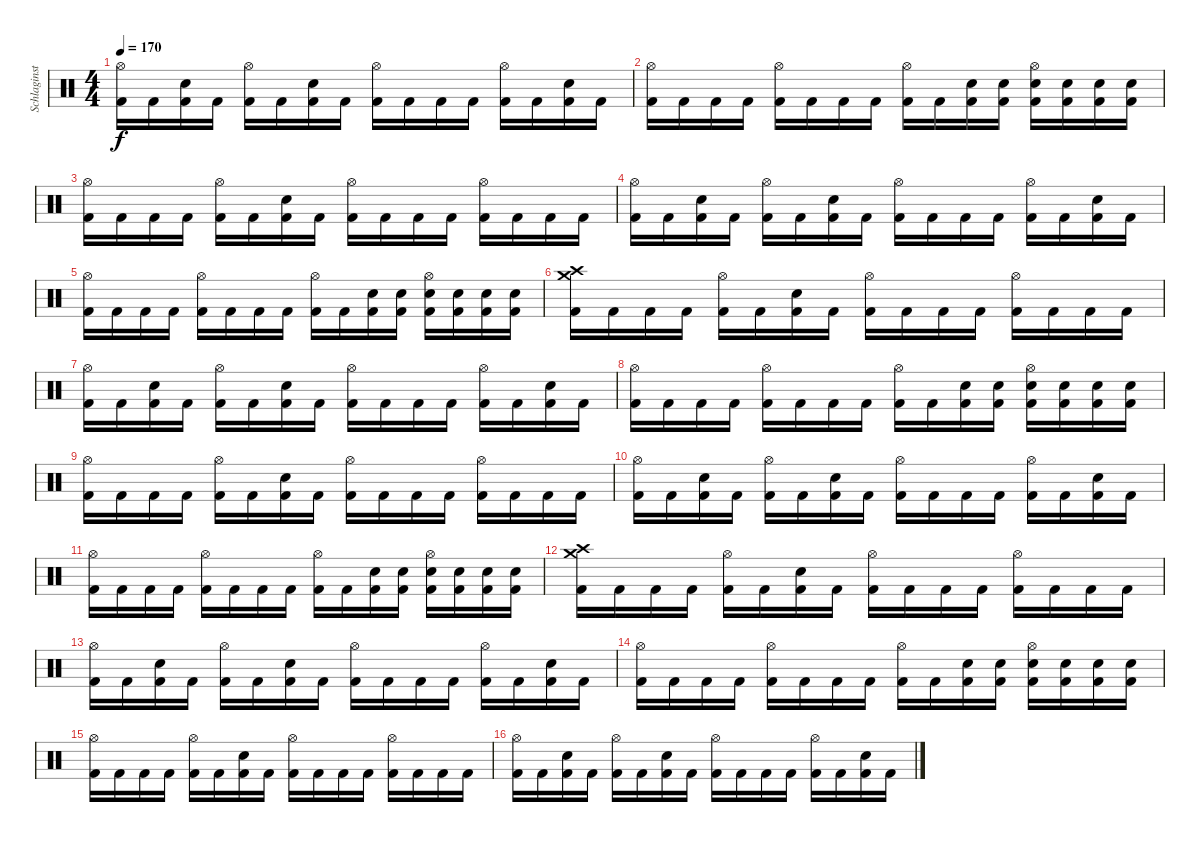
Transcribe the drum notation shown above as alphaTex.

\track ("Schlaginstrumente - Auswahl" "Schlaginst") {instrument percussion}
\staff {score}
\articulation defaults
\ts (4 4)
\tempo 170
\clef neutral
\ks c
("Hi-Hat (open)" "Kick (hit) 2").16{dy f} "Kick (hit) 2".16 ("Snare (hit) 2" "Kick (hit) 2").16 "Kick (hit) 2".16 ("Hi-Hat (open)" "Kick (hit) 2").16 "Kick (hit) 2".16 ("Snare (hit) 2" "Kick (hit) 2").16 "Kick (hit) 2".16 ("Hi-Hat (open)" "Kick (hit) 2").16 "Kick (hit) 2".16 "Kick (hit) 2".16 "Kick (hit) 2".16 ("Hi-Hat (open)" "Kick (hit) 2").16 "Kick (hit) 2".16 ("Snare (hit) 2" "Kick (hit) 2").16 "Kick (hit) 2".16 |
("Hi-Hat (open)" "Kick (hit) 2").16 "Kick (hit) 2".16 "Kick (hit) 2".16 "Kick (hit) 2".16 ("Hi-Hat (open)" "Kick (hit) 2").16 "Kick (hit) 2".16 "Kick (hit) 2".16 "Kick (hit) 2".16 ("Hi-Hat (open)" "Kick (hit) 2").16 "Kick (hit) 2".16 ("Snare (hit) 2" "Kick (hit) 2").16 ("Snare (hit) 2" "Kick (hit) 2").16 ("Hi-Hat (open)" "Snare (hit) 2" "Kick (hit) 2").16 ("Snare (hit) 2" "Kick (hit) 2").16 ("Snare (hit) 2" "Kick (hit) 2").16 ("Snare (hit) 2" "Kick (hit) 2").16 |
("Hi-Hat (open)" "Kick (hit) 2").16 "Kick (hit) 2".16 "Kick (hit) 2".16 "Kick (hit) 2".16 ("Hi-Hat (open)" "Kick (hit) 2").16 "Kick (hit) 2".16 ("Snare (hit) 2" "Kick (hit) 2").16 "Kick (hit) 2".16 ("Hi-Hat (open)" "Kick (hit) 2").16 "Kick (hit) 2".16 "Kick (hit) 2".16 "Kick (hit) 2".16 ("Hi-Hat (open)" "Kick (hit) 2").16 "Kick (hit) 2".16 "Kick (hit) 2".16 "Kick (hit) 2".16 |
("Hi-Hat (open)" "Kick (hit) 2").16 "Kick (hit) 2".16 ("Snare (hit) 2" "Kick (hit) 2").16 "Kick (hit) 2".16 ("Hi-Hat (open)" "Kick (hit) 2").16 "Kick (hit) 2".16 ("Snare (hit) 2" "Kick (hit) 2").16 "Kick (hit) 2".16 ("Hi-Hat (open)" "Kick (hit) 2").16 "Kick (hit) 2".16 "Kick (hit) 2".16 "Kick (hit) 2".16 ("Hi-Hat (open)" "Kick (hit) 2").16 "Kick (hit) 2".16 ("Snare (hit) 2" "Kick (hit) 2").16 "Kick (hit) 2".16 |
("Hi-Hat (open)" "Kick (hit) 2").16 "Kick (hit) 2".16 "Kick (hit) 2".16 "Kick (hit) 2".16 ("Hi-Hat (open)" "Kick (hit) 2").16 "Kick (hit) 2".16 "Kick (hit) 2".16 "Kick (hit) 2".16 ("Hi-Hat (open)" "Kick (hit) 2").16 "Kick (hit) 2".16 ("Snare (hit) 2" "Kick (hit) 2").16 ("Snare (hit) 2" "Kick (hit) 2").16 ("Hi-Hat (open)" "Snare (hit) 2" "Kick (hit) 2").16 ("Snare (hit) 2" "Kick (hit) 2").16 ("Snare (hit) 2" "Kick (hit) 2").16 ("Snare (hit) 2" "Kick (hit) 2").16 |
("Crash medium (hit)" "Crash high (hit)" "Kick (hit) 2").16 "Kick (hit) 2".16 "Kick (hit) 2".16 "Kick (hit) 2".16 ("Hi-Hat (open)" "Kick (hit) 2").16 "Kick (hit) 2".16 ("Snare (hit) 2" "Kick (hit) 2").16 "Kick (hit) 2".16 ("Hi-Hat (open)" "Kick (hit) 2").16 "Kick (hit) 2".16 "Kick (hit) 2".16 "Kick (hit) 2".16 ("Hi-Hat (open)" "Kick (hit) 2").16 "Kick (hit) 2".16 "Kick (hit) 2".16 "Kick (hit) 2".16 |
("Hi-Hat (open)" "Kick (hit) 2").16 "Kick (hit) 2".16 ("Snare (hit) 2" "Kick (hit) 2").16 "Kick (hit) 2".16 ("Hi-Hat (open)" "Kick (hit) 2").16 "Kick (hit) 2".16 ("Snare (hit) 2" "Kick (hit) 2").16 "Kick (hit) 2".16 ("Hi-Hat (open)" "Kick (hit) 2").16 "Kick (hit) 2".16 "Kick (hit) 2".16 "Kick (hit) 2".16 ("Hi-Hat (open)" "Kick (hit) 2").16 "Kick (hit) 2".16 ("Snare (hit) 2" "Kick (hit) 2").16 "Kick (hit) 2".16 |
("Hi-Hat (open)" "Kick (hit) 2").16 "Kick (hit) 2".16 "Kick (hit) 2".16 "Kick (hit) 2".16 ("Hi-Hat (open)" "Kick (hit) 2").16 "Kick (hit) 2".16 "Kick (hit) 2".16 "Kick (hit) 2".16 ("Hi-Hat (open)" "Kick (hit) 2").16 "Kick (hit) 2".16 ("Snare (hit) 2" "Kick (hit) 2").16 ("Snare (hit) 2" "Kick (hit) 2").16 ("Hi-Hat (open)" "Snare (hit) 2" "Kick (hit) 2").16 ("Snare (hit) 2" "Kick (hit) 2").16 ("Snare (hit) 2" "Kick (hit) 2").16 ("Snare (hit) 2" "Kick (hit) 2").16 |
("Hi-Hat (open)" "Kick (hit) 2").16 "Kick (hit) 2".16 "Kick (hit) 2".16 "Kick (hit) 2".16 ("Hi-Hat (open)" "Kick (hit) 2").16 "Kick (hit) 2".16 ("Snare (hit) 2" "Kick (hit) 2").16 "Kick (hit) 2".16 ("Hi-Hat (open)" "Kick (hit) 2").16 "Kick (hit) 2".16 "Kick (hit) 2".16 "Kick (hit) 2".16 ("Hi-Hat (open)" "Kick (hit) 2").16 "Kick (hit) 2".16 "Kick (hit) 2".16 "Kick (hit) 2".16 |
("Hi-Hat (open)" "Kick (hit) 2").16 "Kick (hit) 2".16 ("Snare (hit) 2" "Kick (hit) 2").16 "Kick (hit) 2".16 ("Hi-Hat (open)" "Kick (hit) 2").16 "Kick (hit) 2".16 ("Snare (hit) 2" "Kick (hit) 2").16 "Kick (hit) 2".16 ("Hi-Hat (open)" "Kick (hit) 2").16 "Kick (hit) 2".16 "Kick (hit) 2".16 "Kick (hit) 2".16 ("Hi-Hat (open)" "Kick (hit) 2").16 "Kick (hit) 2".16 ("Snare (hit) 2" "Kick (hit) 2").16 "Kick (hit) 2".16 |
("Hi-Hat (open)" "Kick (hit) 2").16 "Kick (hit) 2".16 "Kick (hit) 2".16 "Kick (hit) 2".16 ("Hi-Hat (open)" "Kick (hit) 2").16 "Kick (hit) 2".16 "Kick (hit) 2".16 "Kick (hit) 2".16 ("Hi-Hat (open)" "Kick (hit) 2").16 "Kick (hit) 2".16 ("Snare (hit) 2" "Kick (hit) 2").16 ("Snare (hit) 2" "Kick (hit) 2").16 ("Hi-Hat (open)" "Snare (hit) 2" "Kick (hit) 2").16 ("Snare (hit) 2" "Kick (hit) 2").16 ("Snare (hit) 2" "Kick (hit) 2").16 ("Snare (hit) 2" "Kick (hit) 2").16 |
("Crash medium (hit)" "Crash high (hit)" "Kick (hit) 2").16 "Kick (hit) 2".16 "Kick (hit) 2".16 "Kick (hit) 2".16 ("Hi-Hat (open)" "Kick (hit) 2").16 "Kick (hit) 2".16 ("Snare (hit) 2" "Kick (hit) 2").16 "Kick (hit) 2".16 ("Hi-Hat (open)" "Kick (hit) 2").16 "Kick (hit) 2".16 "Kick (hit) 2".16 "Kick (hit) 2".16 ("Hi-Hat (open)" "Kick (hit) 2").16 "Kick (hit) 2".16 "Kick (hit) 2".16 "Kick (hit) 2".16 |
("Hi-Hat (open)" "Kick (hit) 2").16 "Kick (hit) 2".16 ("Snare (hit) 2" "Kick (hit) 2").16 "Kick (hit) 2".16 ("Hi-Hat (open)" "Kick (hit) 2").16 "Kick (hit) 2".16 ("Snare (hit) 2" "Kick (hit) 2").16 "Kick (hit) 2".16 ("Hi-Hat (open)" "Kick (hit) 2").16 "Kick (hit) 2".16 "Kick (hit) 2".16 "Kick (hit) 2".16 ("Hi-Hat (open)" "Kick (hit) 2").16 "Kick (hit) 2".16 ("Snare (hit) 2" "Kick (hit) 2").16 "Kick (hit) 2".16 |
("Hi-Hat (open)" "Kick (hit) 2").16 "Kick (hit) 2".16 "Kick (hit) 2".16 "Kick (hit) 2".16 ("Hi-Hat (open)" "Kick (hit) 2").16 "Kick (hit) 2".16 "Kick (hit) 2".16 "Kick (hit) 2".16 ("Hi-Hat (open)" "Kick (hit) 2").16 "Kick (hit) 2".16 ("Snare (hit) 2" "Kick (hit) 2").16 ("Snare (hit) 2" "Kick (hit) 2").16 ("Hi-Hat (open)" "Snare (hit) 2" "Kick (hit) 2").16 ("Snare (hit) 2" "Kick (hit) 2").16 ("Snare (hit) 2" "Kick (hit) 2").16 ("Snare (hit) 2" "Kick (hit) 2").16 |
("Hi-Hat (open)" "Kick (hit) 2").16 "Kick (hit) 2".16 "Kick (hit) 2".16 "Kick (hit) 2".16 ("Hi-Hat (open)" "Kick (hit) 2").16 "Kick (hit) 2".16 ("Snare (hit) 2" "Kick (hit) 2").16 "Kick (hit) 2".16 ("Hi-Hat (open)" "Kick (hit) 2").16 "Kick (hit) 2".16 "Kick (hit) 2".16 "Kick (hit) 2".16 ("Hi-Hat (open)" "Kick (hit) 2").16 "Kick (hit) 2".16 "Kick (hit) 2".16 "Kick (hit) 2".16 |
("Hi-Hat (open)" "Kick (hit) 2").16 "Kick (hit) 2".16 ("Snare (hit) 2" "Kick (hit) 2").16 "Kick (hit) 2".16 ("Hi-Hat (open)" "Kick (hit) 2").16 "Kick (hit) 2".16 ("Snare (hit) 2" "Kick (hit) 2").16 "Kick (hit) 2".16 ("Hi-Hat (open)" "Kick (hit) 2").16 "Kick (hit) 2".16 "Kick (hit) 2".16 "Kick (hit) 2".16 ("Hi-Hat (open)" "Kick (hit) 2").16 "Kick (hit) 2".16 ("Snare (hit) 2" "Kick (hit) 2").16 "Kick (hit) 2".16
